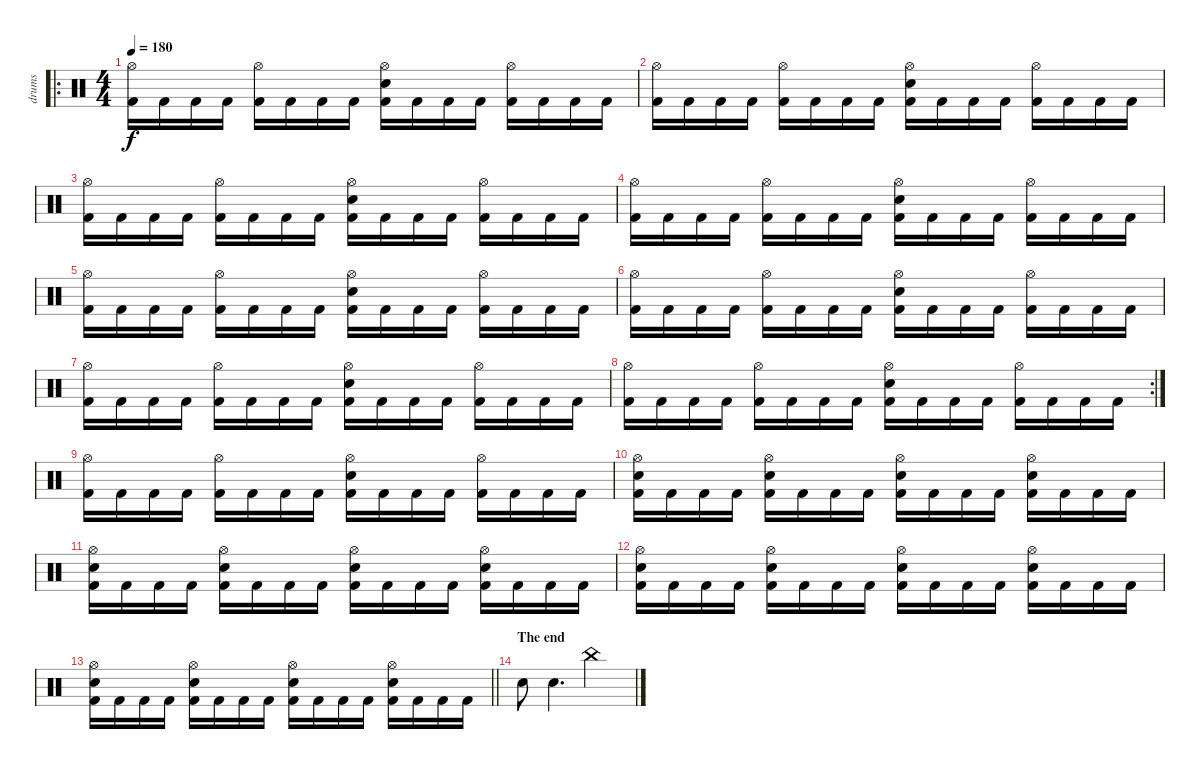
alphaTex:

\track ("drums" "drums") {instrument percussion}
\staff {score}
\articulation defaults
\ro
\ts (4 4)
\tempo 180
\clef neutral
\ks c
("Hi-Hat (open)" "Kick (hit) 2").16{dy f} "Kick (hit) 2".16 "Kick (hit) 2".16 "Kick (hit) 2".16 ("Hi-Hat (open)" "Kick (hit) 2").16 "Kick (hit) 2".16 "Kick (hit) 2".16 "Kick (hit) 2".16 ("Hi-Hat (open)" "Snare (hit) 2" "Kick (hit) 2").16 "Kick (hit) 2".16 "Kick (hit) 2".16 "Kick (hit) 2".16 ("Hi-Hat (open)" "Kick (hit) 2").16 "Kick (hit) 2".16 "Kick (hit) 2".16 "Kick (hit) 2".16 |
("Hi-Hat (open)" "Kick (hit) 2").16 "Kick (hit) 2".16 "Kick (hit) 2".16 "Kick (hit) 2".16 ("Hi-Hat (open)" "Kick (hit) 2").16 "Kick (hit) 2".16 "Kick (hit) 2".16 "Kick (hit) 2".16 ("Hi-Hat (open)" "Snare (hit) 2" "Kick (hit) 2").16 "Kick (hit) 2".16 "Kick (hit) 2".16 "Kick (hit) 2".16 ("Hi-Hat (open)" "Kick (hit) 2").16 "Kick (hit) 2".16 "Kick (hit) 2".16 "Kick (hit) 2".16 |
("Hi-Hat (open)" "Kick (hit) 2").16 "Kick (hit) 2".16 "Kick (hit) 2".16 "Kick (hit) 2".16 ("Hi-Hat (open)" "Kick (hit) 2").16 "Kick (hit) 2".16 "Kick (hit) 2".16 "Kick (hit) 2".16 ("Hi-Hat (open)" "Snare (hit) 2" "Kick (hit) 2").16 "Kick (hit) 2".16 "Kick (hit) 2".16 "Kick (hit) 2".16 ("Hi-Hat (open)" "Kick (hit) 2").16 "Kick (hit) 2".16 "Kick (hit) 2".16 "Kick (hit) 2".16 |
("Hi-Hat (open)" "Kick (hit) 2").16 "Kick (hit) 2".16 "Kick (hit) 2".16 "Kick (hit) 2".16 ("Hi-Hat (open)" "Kick (hit) 2").16 "Kick (hit) 2".16 "Kick (hit) 2".16 "Kick (hit) 2".16 ("Hi-Hat (open)" "Snare (hit) 2" "Kick (hit) 2").16 "Kick (hit) 2".16 "Kick (hit) 2".16 "Kick (hit) 2".16 ("Hi-Hat (open)" "Kick (hit) 2").16 "Kick (hit) 2".16 "Kick (hit) 2".16 "Kick (hit) 2".16 |
("Hi-Hat (open)" "Kick (hit) 2").16 "Kick (hit) 2".16 "Kick (hit) 2".16 "Kick (hit) 2".16 ("Hi-Hat (open)" "Kick (hit) 2").16 "Kick (hit) 2".16 "Kick (hit) 2".16 "Kick (hit) 2".16 ("Hi-Hat (open)" "Snare (hit) 2" "Kick (hit) 2").16 "Kick (hit) 2".16 "Kick (hit) 2".16 "Kick (hit) 2".16 ("Hi-Hat (open)" "Kick (hit) 2").16 "Kick (hit) 2".16 "Kick (hit) 2".16 "Kick (hit) 2".16 |
("Hi-Hat (open)" "Kick (hit) 2").16 "Kick (hit) 2".16 "Kick (hit) 2".16 "Kick (hit) 2".16 ("Hi-Hat (open)" "Kick (hit) 2").16 "Kick (hit) 2".16 "Kick (hit) 2".16 "Kick (hit) 2".16 ("Hi-Hat (open)" "Snare (hit) 2" "Kick (hit) 2").16 "Kick (hit) 2".16 "Kick (hit) 2".16 "Kick (hit) 2".16 ("Hi-Hat (open)" "Kick (hit) 2").16 "Kick (hit) 2".16 "Kick (hit) 2".16 "Kick (hit) 2".16 |
("Hi-Hat (open)" "Kick (hit) 2").16 "Kick (hit) 2".16 "Kick (hit) 2".16 "Kick (hit) 2".16 ("Hi-Hat (open)" "Kick (hit) 2").16 "Kick (hit) 2".16 "Kick (hit) 2".16 "Kick (hit) 2".16 ("Hi-Hat (open)" "Snare (hit) 2" "Kick (hit) 2").16 "Kick (hit) 2".16 "Kick (hit) 2".16 "Kick (hit) 2".16 ("Hi-Hat (open)" "Kick (hit) 2").16 "Kick (hit) 2".16 "Kick (hit) 2".16 "Kick (hit) 2".16 |
\rc 2
("Hi-Hat (open)" "Kick (hit) 2").16 "Kick (hit) 2".16 "Kick (hit) 2".16 "Kick (hit) 2".16 ("Hi-Hat (open)" "Kick (hit) 2").16 "Kick (hit) 2".16 "Kick (hit) 2".16 "Kick (hit) 2".16 ("Hi-Hat (open)" "Snare (hit) 2" "Kick (hit) 2").16 "Kick (hit) 2".16 "Kick (hit) 2".16 "Kick (hit) 2".16 ("Hi-Hat (open)" "Kick (hit) 2").16 "Kick (hit) 2".16 "Kick (hit) 2".16 "Kick (hit) 2".16 |
("Hi-Hat (open)" "Kick (hit) 2").16 "Kick (hit) 2".16 "Kick (hit) 2".16 "Kick (hit) 2".16 ("Hi-Hat (open)" "Kick (hit) 2").16 "Kick (hit) 2".16 "Kick (hit) 2".16 "Kick (hit) 2".16 ("Hi-Hat (open)" "Snare (hit) 2" "Kick (hit) 2").16 "Kick (hit) 2".16 "Kick (hit) 2".16 "Kick (hit) 2".16 ("Hi-Hat (open)" "Kick (hit) 2").16 "Kick (hit) 2".16 "Kick (hit) 2".16 "Kick (hit) 2".16 |
("Hi-Hat (open)" "Snare (hit) 2" "Kick (hit) 2").16 "Kick (hit) 2".16 "Kick (hit) 2".16 "Kick (hit) 2".16 ("Hi-Hat (open)" "Snare (hit) 2" "Kick (hit) 2").16 "Kick (hit) 2".16 "Kick (hit) 2".16 "Kick (hit) 2".16 ("Hi-Hat (open)" "Snare (hit) 2" "Kick (hit) 2").16 "Kick (hit) 2".16 "Kick (hit) 2".16 "Kick (hit) 2".16 ("Hi-Hat (open)" "Snare (hit) 2" "Kick (hit) 2").16 "Kick (hit) 2".16 "Kick (hit) 2".16 "Kick (hit) 2".16 |
("Hi-Hat (open)" "Snare (hit) 2" "Kick (hit) 2").16 "Kick (hit) 2".16 "Kick (hit) 2".16 "Kick (hit) 2".16 ("Hi-Hat (open)" "Snare (hit) 2" "Kick (hit) 2").16 "Kick (hit) 2".16 "Kick (hit) 2".16 "Kick (hit) 2".16 ("Hi-Hat (open)" "Snare (hit) 2" "Kick (hit) 2").16 "Kick (hit) 2".16 "Kick (hit) 2".16 "Kick (hit) 2".16 ("Hi-Hat (open)" "Snare (hit) 2" "Kick (hit) 2").16 "Kick (hit) 2".16 "Kick (hit) 2".16 "Kick (hit) 2".16 |
("Hi-Hat (open)" "Snare (hit) 2" "Kick (hit) 2").16 "Kick (hit) 2".16 "Kick (hit) 2".16 "Kick (hit) 2".16 ("Hi-Hat (open)" "Snare (hit) 2" "Kick (hit) 2").16 "Kick (hit) 2".16 "Kick (hit) 2".16 "Kick (hit) 2".16 ("Hi-Hat (open)" "Snare (hit) 2" "Kick (hit) 2").16 "Kick (hit) 2".16 "Kick (hit) 2".16 "Kick (hit) 2".16 ("Hi-Hat (open)" "Snare (hit) 2" "Kick (hit) 2").16 "Kick (hit) 2".16 "Kick (hit) 2".16 "Kick (hit) 2".16 |
\barLineRight lightlight
("Hi-Hat (open)" "Snare (hit) 2" "Kick (hit) 2").16 "Kick (hit) 2".16 "Kick (hit) 2".16 "Kick (hit) 2".16 ("Hi-Hat (open)" "Snare (hit) 2" "Kick (hit) 2").16 "Kick (hit) 2".16 "Kick (hit) 2".16 "Kick (hit) 2".16 ("Hi-Hat (open)" "Snare (hit) 2" "Kick (hit) 2").16 "Kick (hit) 2".16 "Kick (hit) 2".16 "Kick (hit) 2".16 ("Hi-Hat (open)" "Snare (hit) 2" "Kick (hit) 2").16 "Kick (hit) 2".16 "Kick (hit) 2".16 "Kick (hit) 2".16 |
\section ("" "The end")
"Snare (hit) 2".8 "Snare (hit) 2".4{d} "China (hit)".2
